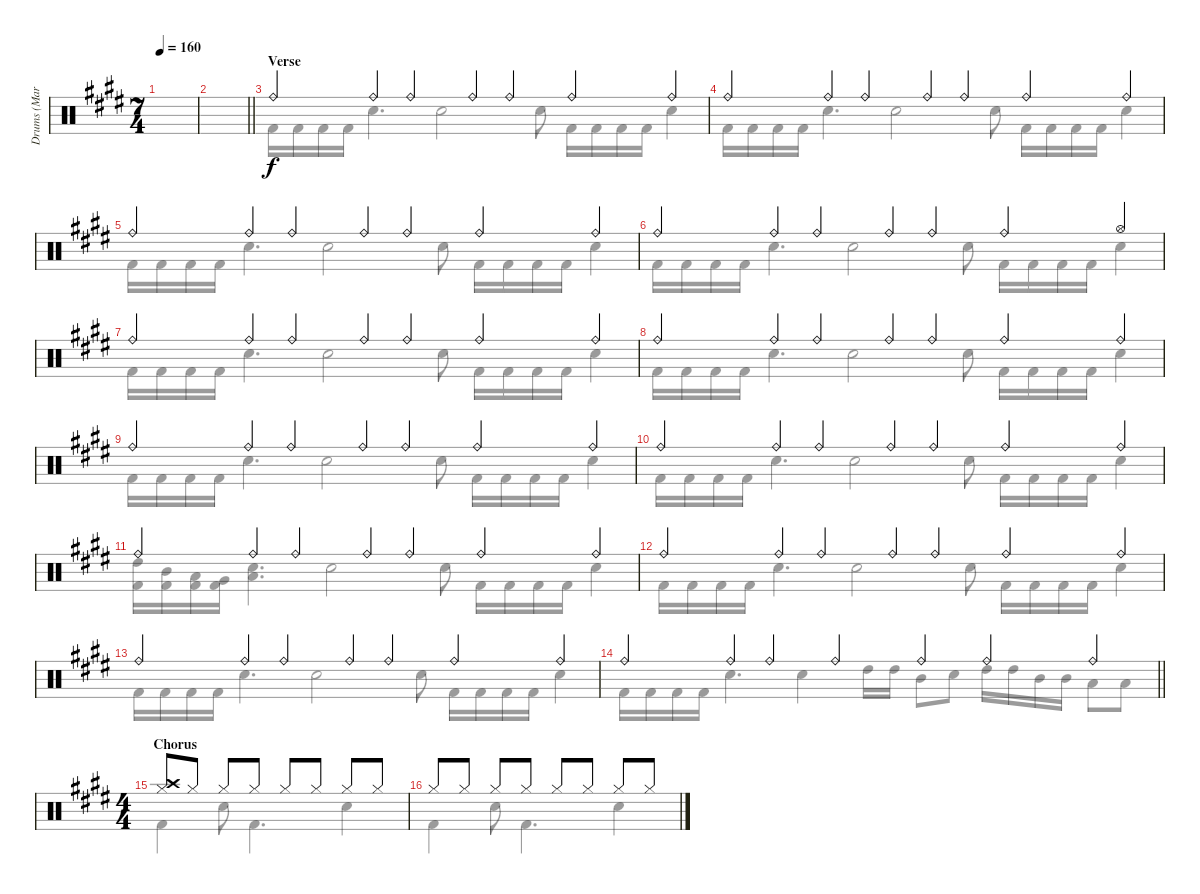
\track ("Drums (Mark Zonder)" "Drums (Mar") {instrument percussion}
\staff {score}
\articulation defaults
\voice
\ts (7 4)
\tempo 160
\clef neutral
\ks c#minor
|
\barLineRight lightlight
|
\section ("" "Verse")
"Ride (bell)".4 "Ride (bell)".4 "Ride (bell)".4 "Ride (bell)".4 "Ride (bell)".4 "Ride (bell)".4 "Ride (bell)".4 |
"Ride (bell)".4 "Ride (bell)".4 "Ride (bell)".4 "Ride (bell)".4 "Ride (bell)".4 "Ride (bell)".4 "Ride (bell)".4 |
"Ride (bell)".4 "Ride (bell)".4 "Ride (bell)".4 "Ride (bell)".4 "Ride (bell)".4 "Ride (bell)".4 "Ride (bell)".4 |
"Ride (bell)".4 "Ride (bell)".4 "Ride (bell)".4 "Ride (bell)".4 "Ride (bell)".4 "Ride (bell)".4 "Hi-Hat (open)".4 |
"Ride (bell)".4 "Ride (bell)".4 "Ride (bell)".4 "Ride (bell)".4 "Ride (bell)".4 "Ride (bell)".4 "Ride (bell)".4 |
"Ride (bell)".4 "Ride (bell)".4 "Ride (bell)".4 "Ride (bell)".4 "Ride (bell)".4 "Ride (bell)".4 "Ride (bell)".4 |
"Ride (bell)".4 "Ride (bell)".4 "Ride (bell)".4 "Ride (bell)".4 "Ride (bell)".4 "Ride (bell)".4 "Ride (bell)".4 |
"Ride (bell)".4 "Ride (bell)".4 "Ride (bell)".4 "Ride (bell)".4 "Ride (bell)".4 "Ride (bell)".4 "Ride (bell)".4 |
"Ride (bell)".4 "Ride (bell)".4 "Ride (bell)".4 "Ride (bell)".4 "Ride (bell)".4 "Ride (bell)".4 "Ride (bell)".4 |
"Ride (bell)".4 "Ride (bell)".4 "Ride (bell)".4 "Ride (bell)".4 "Ride (bell)".4 "Ride (bell)".4 "Ride (bell)".4 |
"Ride (bell)".4 "Ride (bell)".4 "Ride (bell)".4 "Ride (bell)".4 "Ride (bell)".4 "Ride (bell)".4 "Ride (bell)".4 |
\barLineRight lightlight "Ride (bell)".4 "Ride (bell)".4 "Ride (bell)".4 "Ride (bell)".4 "Ride (bell)".4 "Ride (bell)".4 "Ride (bell)".4
|
\ts (4 4)
\section ("" "Chorus")
("Hi-Hat (closed)" "Crash high (hit)").8 "Hi-Hat (closed)".8 "Hi-Hat (closed)".8 "Hi-Hat (closed)".8 "Hi-Hat (closed)".8 "Hi-Hat (closed)".8 "Hi-Hat (closed)".8 "Hi-Hat (closed)".8 |
"Hi-Hat (closed)".8 "Hi-Hat (closed)".8 "Hi-Hat (closed)".8 "Hi-Hat (closed)".8 "Hi-Hat (closed)".8 "Hi-Hat (closed)".8 "Hi-Hat (closed)".8 "Hi-Hat (closed)".8
\voice
\clef neutral
\ottava regular
\simile none
\ks c#minor
|
\barLineRight lightlight
|
"Kick (hit) 2".16 "Kick (hit) 2".16 "Kick (hit) 2".16 "Kick (hit) 2".16 "Electric Snare (hit)".4{d} "Electric Snare (hit)".2 "Electric Snare (hit)".8 "Kick (hit) 2".16 "Kick (hit) 2".16 "Kick (hit) 2".16 "Kick (hit) 2".16 "Electric Snare (hit)".4 |
"Kick (hit) 2".16 "Kick (hit) 2".16 "Kick (hit) 2".16 "Kick (hit) 2".16 "Electric Snare (hit)".4{d} "Electric Snare (hit)".2 "Electric Snare (hit)".8 "Kick (hit) 2".16 "Kick (hit) 2".16 "Kick (hit) 2".16 "Kick (hit) 2".16 "Electric Snare (hit)".4 |
"Kick (hit) 2".16 "Kick (hit) 2".16 "Kick (hit) 2".16 "Kick (hit) 2".16 "Electric Snare (hit)".4{d} "Electric Snare (hit)".2 "Electric Snare (hit)".8 "Kick (hit) 2".16 "Kick (hit) 2".16 "Kick (hit) 2".16 "Kick (hit) 2".16 "Electric Snare (hit)".4 |
"Kick (hit) 2".16 "Kick (hit) 2".16 "Kick (hit) 2".16 "Kick (hit) 2".16 "Electric Snare (hit)".4{d} "Electric Snare (hit)".2 "Electric Snare (hit)".8 "Kick (hit) 2".16 "Kick (hit) 2".16 "Kick (hit) 2".16 "Kick (hit) 2".16 "Electric Snare (hit)".4 |
"Kick (hit) 2".16 "Kick (hit) 2".16 "Kick (hit) 2".16 "Kick (hit) 2".16 "Electric Snare (hit)".4{d} "Electric Snare (hit)".2 "Electric Snare (hit)".8 "Kick (hit) 2".16 "Kick (hit) 2".16 "Kick (hit) 2".16 "Kick (hit) 2".16 "Electric Snare (hit)".4 |
"Kick (hit) 2".16 "Kick (hit) 2".16 "Kick (hit) 2".16 "Kick (hit) 2".16 "Electric Snare (hit)".4{d} "Electric Snare (hit)".2 "Electric Snare (hit)".8 "Kick (hit) 2".16 "Kick (hit) 2".16 "Kick (hit) 2".16 "Kick (hit) 2".16 "Electric Snare (hit)".4 |
"Kick (hit) 2".16 "Kick (hit) 2".16 "Kick (hit) 2".16 "Kick (hit) 2".16 "Electric Snare (hit)".4{d} "Electric Snare (hit)".2 "Electric Snare (hit)".8 "Kick (hit) 2".16 "Kick (hit) 2".16 "Kick (hit) 2".16 "Kick (hit) 2".16 "Electric Snare (hit)".4 |
"Kick (hit) 2".16 "Kick (hit) 2".16 "Kick (hit) 2".16 "Kick (hit) 2".16 "Electric Snare (hit)".4{d} "Electric Snare (hit)".2 "Electric Snare (hit)".8 "Kick (hit) 2".16 "Kick (hit) 2".16 "Kick (hit) 2".16 "Kick (hit) 2".16 "Electric Snare (hit)".4 |
("High Tom (hit)" "Kick (hit) 2").16 ("Mid Tom (hit)" "Kick (hit) 2").16 ("Low Tom (hit)" "Kick (hit) 2").16 ("Very Low Tom (hit)" "Kick (hit) 2").16 ("Low Floor Tom (hit)" "Electric Snare (hit)").4{d} "Electric Snare (hit)".2 "Electric Snare (hit)".8 "Kick (hit) 2".16 "Kick (hit) 2".16 "Kick (hit) 2".16 "Kick (hit) 2".16 "Electric Snare (hit)".4 |
"Kick (hit) 2".16 "Kick (hit) 2".16 "Kick (hit) 2".16 "Kick (hit) 2".16 "Electric Snare (hit)".4{d} "Electric Snare (hit)".2 "Electric Snare (hit)".8 "Kick (hit) 2".16 "Kick (hit) 2".16 "Kick (hit) 2".16 "Kick (hit) 2".16 "Electric Snare (hit)".4 |
"Kick (hit) 2".16 "Kick (hit) 2".16 "Kick (hit) 2".16 "Kick (hit) 2".16 "Electric Snare (hit)".4{d} "Electric Snare (hit)".2 "Electric Snare (hit)".8 "Kick (hit) 2".16 "Kick (hit) 2".16 "Kick (hit) 2".16 "Kick (hit) 2".16 "Electric Snare (hit)".4 |
\barLineRight lightlight "Kick (hit) 2".16 "Kick (hit) 2".16 "Kick (hit) 2".16 "Kick (hit) 2".16 "Electric Snare (hit)".4{d} "Electric Snare (hit)".4 "High Tom (hit)".16 "High Tom (hit)".16 "Mid Tom (hit)".8 "Electric Snare (hit)".8 "High Tom (hit)".16 "High Tom (hit)".16 "Mid Tom (hit)".16 "Mid Tom (hit)".16 "Low Tom (hit)".8 "Low Tom (hit)".8
|
"Kick (hit) 2".4 "Electric Snare (hit)".8 "Kick (hit) 2".4{d} "Electric Snare (hit)".4 |
"Kick (hit) 2".4 "Electric Snare (hit)".8 "Kick (hit) 2".4{d} "Electric Snare (hit)".4
